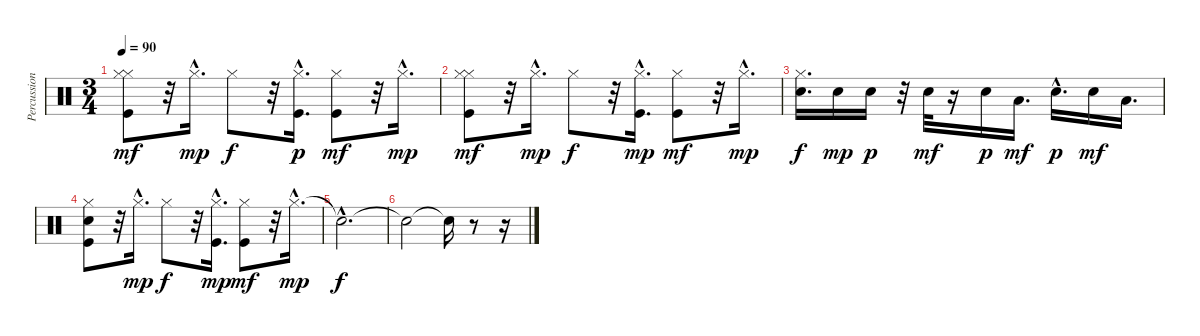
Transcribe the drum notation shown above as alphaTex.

\track ("Percussion" "Percussion") {instrument percussion}
\staff {score}
\articulation defaults
\ts (3 4)
\tempo 90
\clef neutral
\ks c
("Hi-Hat (closed)" "Kick (hit)" "Hi-Hat (closed)").8{dy mf} r.32 "Hi-Hat (closed)"{hac}.16{d dy mp} "Hi-Hat (closed)".8{dy f} r.32 ("Kick (hit)" "Hi-Hat (closed)"{hac}).16{d dy p} ("Kick (hit)" "Hi-Hat (closed)").8{dy mf} r.32 "Hi-Hat (closed)"{hac}.16{d dy mp} |
("Hi-Hat (closed)" "Kick (hit)" "Hi-Hat (closed)").8{dy mf} r.32 "Hi-Hat (closed)"{hac}.16{d dy mp} "Hi-Hat (closed)".8{dy f} r.32 ("Kick (hit)" "Hi-Hat (closed)"{hac}).16{d dy mp} ("Kick (hit)" "Hi-Hat (closed)").8{dy mf} r.32 "Hi-Hat (closed)"{hac}.16{d dy mp} |
("Hi-Hat (closed)" "Snare (hit) 2").16{d dy f} "Snare (hit) 2".16{dy mp} "Snare (hit) 2".16{dy p} r.32 "Snare (hit) 2".32{dy mf} r.16 "Snare (hit) 2".16{dy p} "Low Floor Tom (hit)".16{d dy mf} "Snare (hit) 2"{hac}.16{d dy p} "Snare (hit) 2".16{dy mf} "Low Tom (hit)".16{d} |
("Snare (hit) 2" "Kick (hit)" "Hi-Hat (closed)").8 r.32 "Hi-Hat (closed)"{hac}.16{d dy mp} "Hi-Hat (closed)".8{dy f} r.32 ("Kick (hit)" "Hi-Hat (closed)"{hac}).16{d dy mp} ("Kick (hit)" "Hi-Hat (closed)").8{dy mf} r.32 "Hi-Hat (closed)"{hac}.16{d dy mp} |
"Snare (hit)"{hac t}.2{d dy f} |
"Snare (hit)"{t}.2 "Snare (hit)"{t}.16 r.8 r.16
